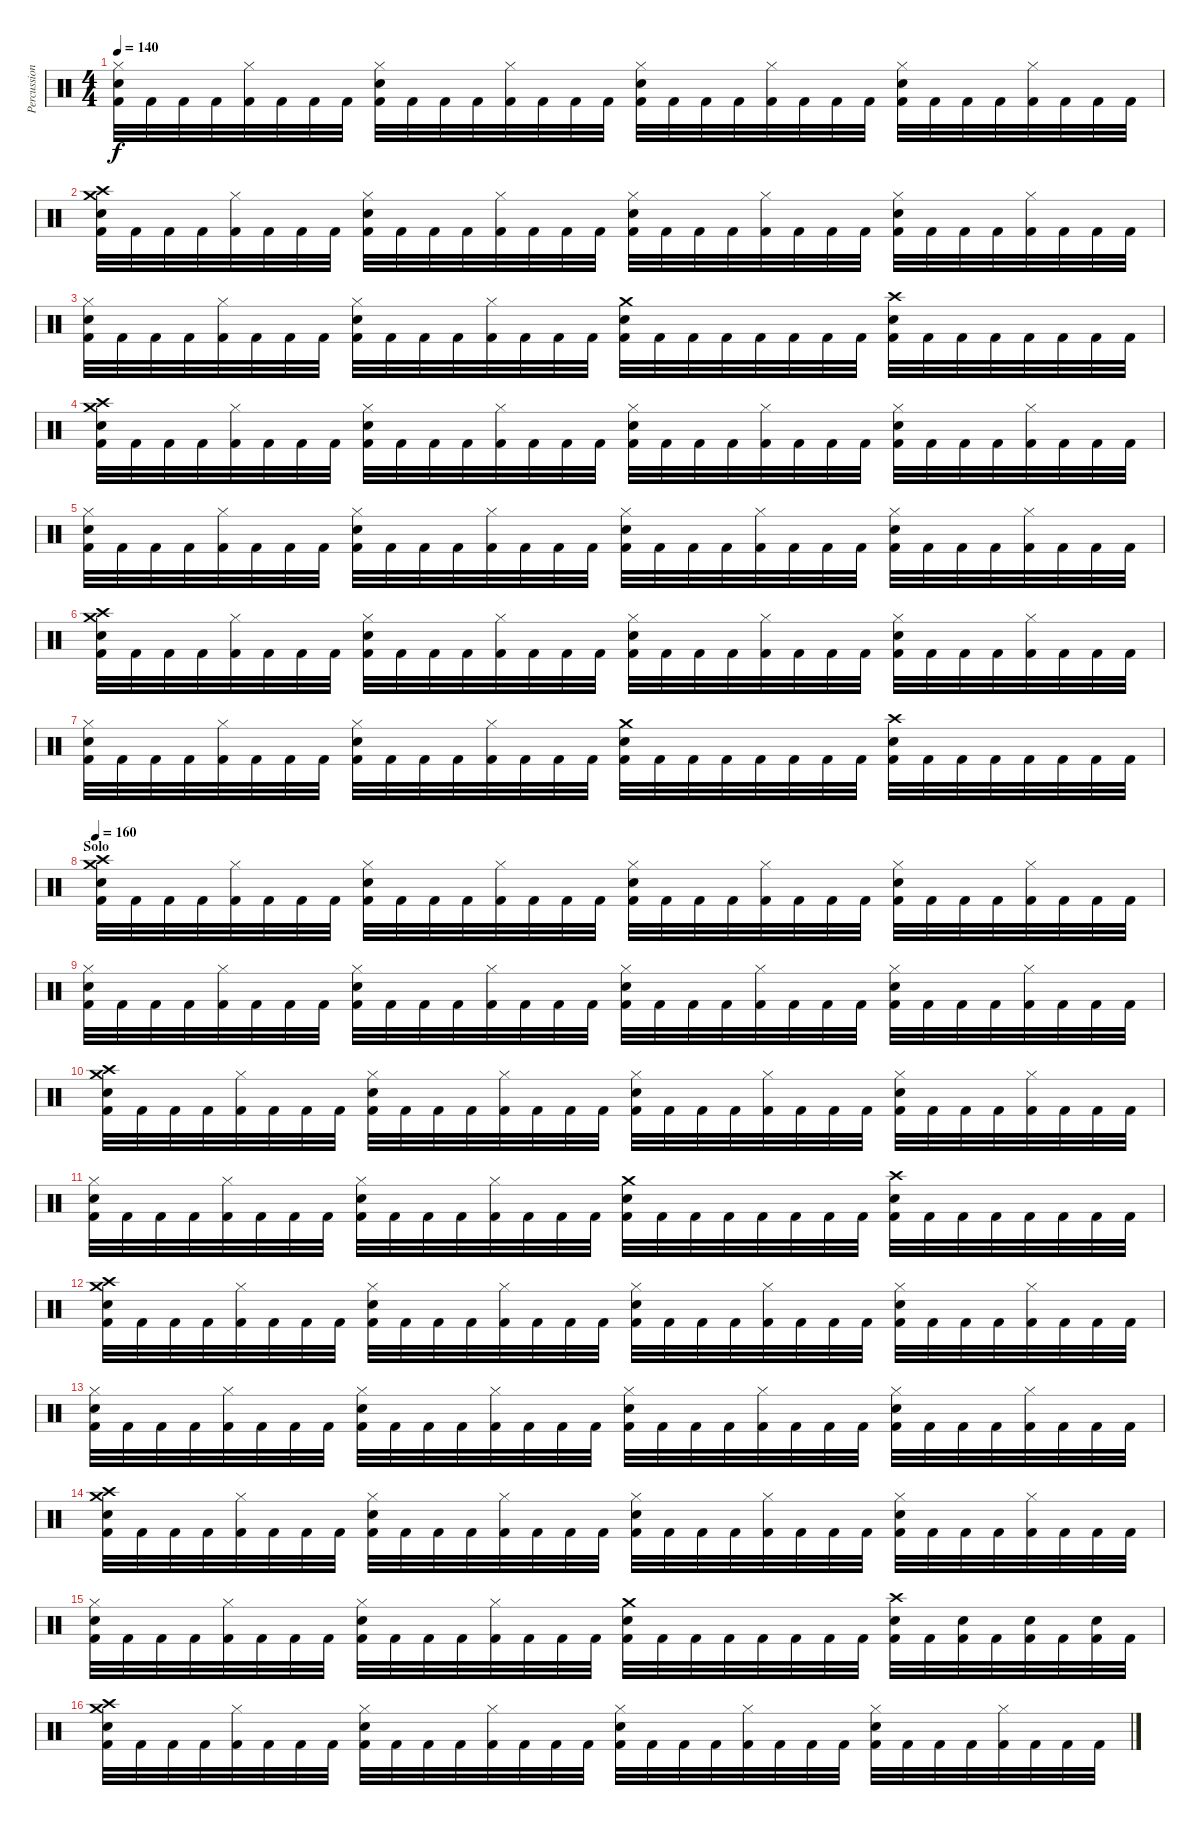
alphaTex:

\track ("Percussion" "Percussion") {instrument percussion}
\staff {score}
\articulation defaults
\ts (4 4)
\tempo 140
\clef neutral
\ks c
("Hi-Hat (closed)" "Electric Snare (hit)" "Kick (hit) 2").32{dy f} "Kick (hit) 2".32 "Kick (hit) 2".32 "Kick (hit) 2".32 ("Hi-Hat (closed)" "Kick (hit) 2").32 "Kick (hit) 2".32 "Kick (hit) 2".32 "Kick (hit) 2".32 ("Hi-Hat (closed)" "Electric Snare (hit)" "Kick (hit) 2").32 "Kick (hit) 2".32 "Kick (hit) 2".32 "Kick (hit) 2".32 ("Hi-Hat (closed)" "Kick (hit) 2").32 "Kick (hit) 2".32 "Kick (hit) 2".32 "Kick (hit) 2".32 ("Hi-Hat (closed)" "Electric Snare (hit)" "Kick (hit) 2").32 "Kick (hit) 2".32 "Kick (hit) 2".32 "Kick (hit) 2".32 ("Hi-Hat (closed)" "Kick (hit) 2").32 "Kick (hit) 2".32 "Kick (hit) 2".32 "Kick (hit) 2".32 ("Hi-Hat (closed)" "Electric Snare (hit)" "Kick (hit) 2").32 "Kick (hit) 2".32 "Kick (hit) 2".32 "Kick (hit) 2".32 ("Hi-Hat (closed)" "Kick (hit) 2").32 "Kick (hit) 2".32 "Kick (hit) 2".32 "Kick (hit) 2".32 |
("Crash medium (hit)" "Crash high (hit)" "Electric Snare (hit)" "Kick (hit) 2").32 "Kick (hit) 2".32 "Kick (hit) 2".32 "Kick (hit) 2".32 ("Hi-Hat (closed)" "Kick (hit) 2").32 "Kick (hit) 2".32 "Kick (hit) 2".32 "Kick (hit) 2".32 ("Hi-Hat (closed)" "Electric Snare (hit)" "Kick (hit) 2").32 "Kick (hit) 2".32 "Kick (hit) 2".32 "Kick (hit) 2".32 ("Hi-Hat (closed)" "Kick (hit) 2").32 "Kick (hit) 2".32 "Kick (hit) 2".32 "Kick (hit) 2".32 ("Hi-Hat (closed)" "Electric Snare (hit)" "Kick (hit) 2").32 "Kick (hit) 2".32 "Kick (hit) 2".32 "Kick (hit) 2".32 ("Hi-Hat (closed)" "Kick (hit) 2").32 "Kick (hit) 2".32 "Kick (hit) 2".32 "Kick (hit) 2".32 ("Hi-Hat (closed)" "Electric Snare (hit)" "Kick (hit) 2").32 "Kick (hit) 2".32 "Kick (hit) 2".32 "Kick (hit) 2".32 ("Hi-Hat (closed)" "Kick (hit) 2").32 "Kick (hit) 2".32 "Kick (hit) 2".32 "Kick (hit) 2".32 |
("Hi-Hat (closed)" "Electric Snare (hit)" "Kick (hit) 2").32 "Kick (hit) 2".32 "Kick (hit) 2".32 "Kick (hit) 2".32 ("Hi-Hat (closed)" "Kick (hit) 2").32 "Kick (hit) 2".32 "Kick (hit) 2".32 "Kick (hit) 2".32 ("Hi-Hat (closed)" "Electric Snare (hit)" "Kick (hit) 2").32 "Kick (hit) 2".32 "Kick (hit) 2".32 "Kick (hit) 2".32 ("Hi-Hat (closed)" "Kick (hit) 2").32 "Kick (hit) 2".32 "Kick (hit) 2".32 "Kick (hit) 2".32 ("Crash medium (hit)" "Electric Snare (hit)" "Kick (hit) 2").32 "Kick (hit) 2".32 "Kick (hit) 2".32 "Kick (hit) 2".32 "Kick (hit) 2".32 "Kick (hit) 2".32 "Kick (hit) 2".32 "Kick (hit) 2".32 ("Crash high (hit)" "Electric Snare (hit)" "Kick (hit) 2").32 "Kick (hit) 2".32 "Kick (hit) 2".32 "Kick (hit) 2".32 "Kick (hit) 2".32 "Kick (hit) 2".32 "Kick (hit) 2".32 "Kick (hit) 2".32 |
("Crash medium (hit)" "Crash high (hit)" "Electric Snare (hit)" "Kick (hit) 2").32 "Kick (hit) 2".32 "Kick (hit) 2".32 "Kick (hit) 2".32 ("Hi-Hat (closed)" "Kick (hit) 2").32 "Kick (hit) 2".32 "Kick (hit) 2".32 "Kick (hit) 2".32 ("Hi-Hat (closed)" "Electric Snare (hit)" "Kick (hit) 2").32 "Kick (hit) 2".32 "Kick (hit) 2".32 "Kick (hit) 2".32 ("Hi-Hat (closed)" "Kick (hit) 2").32 "Kick (hit) 2".32 "Kick (hit) 2".32 "Kick (hit) 2".32 ("Hi-Hat (closed)" "Electric Snare (hit)" "Kick (hit) 2").32 "Kick (hit) 2".32 "Kick (hit) 2".32 "Kick (hit) 2".32 ("Hi-Hat (closed)" "Kick (hit) 2").32 "Kick (hit) 2".32 "Kick (hit) 2".32 "Kick (hit) 2".32 ("Hi-Hat (closed)" "Electric Snare (hit)" "Kick (hit) 2").32 "Kick (hit) 2".32 "Kick (hit) 2".32 "Kick (hit) 2".32 ("Hi-Hat (closed)" "Kick (hit) 2").32 "Kick (hit) 2".32 "Kick (hit) 2".32 "Kick (hit) 2".32 |
("Hi-Hat (closed)" "Electric Snare (hit)" "Kick (hit) 2").32 "Kick (hit) 2".32 "Kick (hit) 2".32 "Kick (hit) 2".32 ("Hi-Hat (closed)" "Kick (hit) 2").32 "Kick (hit) 2".32 "Kick (hit) 2".32 "Kick (hit) 2".32 ("Hi-Hat (closed)" "Electric Snare (hit)" "Kick (hit) 2").32 "Kick (hit) 2".32 "Kick (hit) 2".32 "Kick (hit) 2".32 ("Hi-Hat (closed)" "Kick (hit) 2").32 "Kick (hit) 2".32 "Kick (hit) 2".32 "Kick (hit) 2".32 ("Hi-Hat (closed)" "Electric Snare (hit)" "Kick (hit) 2").32 "Kick (hit) 2".32 "Kick (hit) 2".32 "Kick (hit) 2".32 ("Hi-Hat (closed)" "Kick (hit) 2").32 "Kick (hit) 2".32 "Kick (hit) 2".32 "Kick (hit) 2".32 ("Hi-Hat (closed)" "Electric Snare (hit)" "Kick (hit) 2").32 "Kick (hit) 2".32 "Kick (hit) 2".32 "Kick (hit) 2".32 ("Hi-Hat (closed)" "Kick (hit) 2").32 "Kick (hit) 2".32 "Kick (hit) 2".32 "Kick (hit) 2".32 |
("Crash medium (hit)" "Crash high (hit)" "Electric Snare (hit)" "Kick (hit) 2").32 "Kick (hit) 2".32 "Kick (hit) 2".32 "Kick (hit) 2".32 ("Hi-Hat (closed)" "Kick (hit) 2").32 "Kick (hit) 2".32 "Kick (hit) 2".32 "Kick (hit) 2".32 ("Hi-Hat (closed)" "Electric Snare (hit)" "Kick (hit) 2").32 "Kick (hit) 2".32 "Kick (hit) 2".32 "Kick (hit) 2".32 ("Hi-Hat (closed)" "Kick (hit) 2").32 "Kick (hit) 2".32 "Kick (hit) 2".32 "Kick (hit) 2".32 ("Hi-Hat (closed)" "Electric Snare (hit)" "Kick (hit) 2").32 "Kick (hit) 2".32 "Kick (hit) 2".32 "Kick (hit) 2".32 ("Hi-Hat (closed)" "Kick (hit) 2").32 "Kick (hit) 2".32 "Kick (hit) 2".32 "Kick (hit) 2".32 ("Hi-Hat (closed)" "Electric Snare (hit)" "Kick (hit) 2").32 "Kick (hit) 2".32 "Kick (hit) 2".32 "Kick (hit) 2".32 ("Hi-Hat (closed)" "Kick (hit) 2").32 "Kick (hit) 2".32 "Kick (hit) 2".32 "Kick (hit) 2".32 |
("Hi-Hat (closed)" "Electric Snare (hit)" "Kick (hit) 2").32 "Kick (hit) 2".32 "Kick (hit) 2".32 "Kick (hit) 2".32 ("Hi-Hat (closed)" "Kick (hit) 2").32 "Kick (hit) 2".32 "Kick (hit) 2".32 "Kick (hit) 2".32 ("Hi-Hat (closed)" "Electric Snare (hit)" "Kick (hit) 2").32 "Kick (hit) 2".32 "Kick (hit) 2".32 "Kick (hit) 2".32 ("Hi-Hat (closed)" "Kick (hit) 2").32 "Kick (hit) 2".32 "Kick (hit) 2".32 "Kick (hit) 2".32 ("Crash medium (hit)" "Electric Snare (hit)" "Kick (hit) 2").32 "Kick (hit) 2".32 "Kick (hit) 2".32 "Kick (hit) 2".32 "Kick (hit) 2".32 "Kick (hit) 2".32 "Kick (hit) 2".32 "Kick (hit) 2".32 ("Crash high (hit)" "Electric Snare (hit)" "Kick (hit) 2").32 "Kick (hit) 2".32 "Kick (hit) 2".32 "Kick (hit) 2".32 "Kick (hit) 2".32 "Kick (hit) 2".32 "Kick (hit) 2".32 "Kick (hit) 2".32 |
\section ("" "Solo")
\tempo 160
("Crash medium (hit)" "Crash high (hit)" "Electric Snare (hit)" "Kick (hit) 2").32 "Kick (hit) 2".32 "Kick (hit) 2".32 "Kick (hit) 2".32 ("Hi-Hat (closed)" "Kick (hit) 2").32 "Kick (hit) 2".32 "Kick (hit) 2".32 "Kick (hit) 2".32 ("Hi-Hat (closed)" "Electric Snare (hit)" "Kick (hit) 2").32 "Kick (hit) 2".32 "Kick (hit) 2".32 "Kick (hit) 2".32 ("Hi-Hat (closed)" "Kick (hit) 2").32 "Kick (hit) 2".32 "Kick (hit) 2".32 "Kick (hit) 2".32 ("Hi-Hat (closed)" "Electric Snare (hit)" "Kick (hit) 2").32 "Kick (hit) 2".32 "Kick (hit) 2".32 "Kick (hit) 2".32 ("Hi-Hat (closed)" "Kick (hit) 2").32 "Kick (hit) 2".32 "Kick (hit) 2".32 "Kick (hit) 2".32 ("Hi-Hat (closed)" "Electric Snare (hit)" "Kick (hit) 2").32 "Kick (hit) 2".32 "Kick (hit) 2".32 "Kick (hit) 2".32 ("Hi-Hat (closed)" "Kick (hit) 2").32 "Kick (hit) 2".32 "Kick (hit) 2".32 "Kick (hit) 2".32 |
("Hi-Hat (closed)" "Electric Snare (hit)" "Kick (hit) 2").32 "Kick (hit) 2".32 "Kick (hit) 2".32 "Kick (hit) 2".32 ("Hi-Hat (closed)" "Kick (hit) 2").32 "Kick (hit) 2".32 "Kick (hit) 2".32 "Kick (hit) 2".32 ("Hi-Hat (closed)" "Electric Snare (hit)" "Kick (hit) 2").32 "Kick (hit) 2".32 "Kick (hit) 2".32 "Kick (hit) 2".32 ("Hi-Hat (closed)" "Kick (hit) 2").32 "Kick (hit) 2".32 "Kick (hit) 2".32 "Kick (hit) 2".32 ("Hi-Hat (closed)" "Electric Snare (hit)" "Kick (hit) 2").32 "Kick (hit) 2".32 "Kick (hit) 2".32 "Kick (hit) 2".32 ("Hi-Hat (closed)" "Kick (hit) 2").32 "Kick (hit) 2".32 "Kick (hit) 2".32 "Kick (hit) 2".32 ("Hi-Hat (closed)" "Electric Snare (hit)" "Kick (hit) 2").32 "Kick (hit) 2".32 "Kick (hit) 2".32 "Kick (hit) 2".32 ("Hi-Hat (closed)" "Kick (hit) 2").32 "Kick (hit) 2".32 "Kick (hit) 2".32 "Kick (hit) 2".32 |
("Crash medium (hit)" "Crash high (hit)" "Electric Snare (hit)" "Kick (hit) 2").32 "Kick (hit) 2".32 "Kick (hit) 2".32 "Kick (hit) 2".32 ("Hi-Hat (closed)" "Kick (hit) 2").32 "Kick (hit) 2".32 "Kick (hit) 2".32 "Kick (hit) 2".32 ("Hi-Hat (closed)" "Electric Snare (hit)" "Kick (hit) 2").32 "Kick (hit) 2".32 "Kick (hit) 2".32 "Kick (hit) 2".32 ("Hi-Hat (closed)" "Kick (hit) 2").32 "Kick (hit) 2".32 "Kick (hit) 2".32 "Kick (hit) 2".32 ("Hi-Hat (closed)" "Electric Snare (hit)" "Kick (hit) 2").32 "Kick (hit) 2".32 "Kick (hit) 2".32 "Kick (hit) 2".32 ("Hi-Hat (closed)" "Kick (hit) 2").32 "Kick (hit) 2".32 "Kick (hit) 2".32 "Kick (hit) 2".32 ("Hi-Hat (closed)" "Electric Snare (hit)" "Kick (hit) 2").32 "Kick (hit) 2".32 "Kick (hit) 2".32 "Kick (hit) 2".32 ("Hi-Hat (closed)" "Kick (hit) 2").32 "Kick (hit) 2".32 "Kick (hit) 2".32 "Kick (hit) 2".32 |
("Hi-Hat (closed)" "Electric Snare (hit)" "Kick (hit) 2").32 "Kick (hit) 2".32 "Kick (hit) 2".32 "Kick (hit) 2".32 ("Hi-Hat (closed)" "Kick (hit) 2").32 "Kick (hit) 2".32 "Kick (hit) 2".32 "Kick (hit) 2".32 ("Hi-Hat (closed)" "Electric Snare (hit)" "Kick (hit) 2").32 "Kick (hit) 2".32 "Kick (hit) 2".32 "Kick (hit) 2".32 ("Hi-Hat (closed)" "Kick (hit) 2").32 "Kick (hit) 2".32 "Kick (hit) 2".32 "Kick (hit) 2".32 ("Crash medium (hit)" "Electric Snare (hit)" "Kick (hit) 2").32 "Kick (hit) 2".32 "Kick (hit) 2".32 "Kick (hit) 2".32 "Kick (hit) 2".32 "Kick (hit) 2".32 "Kick (hit) 2".32 "Kick (hit) 2".32 ("Crash high (hit)" "Electric Snare (hit)" "Kick (hit) 2").32 "Kick (hit) 2".32 "Kick (hit) 2".32 "Kick (hit) 2".32 "Kick (hit) 2".32 "Kick (hit) 2".32 "Kick (hit) 2".32 "Kick (hit) 2".32 |
("Crash medium (hit)" "Crash high (hit)" "Electric Snare (hit)" "Kick (hit) 2").32 "Kick (hit) 2".32 "Kick (hit) 2".32 "Kick (hit) 2".32 ("Hi-Hat (closed)" "Kick (hit) 2").32 "Kick (hit) 2".32 "Kick (hit) 2".32 "Kick (hit) 2".32 ("Hi-Hat (closed)" "Electric Snare (hit)" "Kick (hit) 2").32 "Kick (hit) 2".32 "Kick (hit) 2".32 "Kick (hit) 2".32 ("Hi-Hat (closed)" "Kick (hit) 2").32 "Kick (hit) 2".32 "Kick (hit) 2".32 "Kick (hit) 2".32 ("Hi-Hat (closed)" "Electric Snare (hit)" "Kick (hit) 2").32 "Kick (hit) 2".32 "Kick (hit) 2".32 "Kick (hit) 2".32 ("Hi-Hat (closed)" "Kick (hit) 2").32 "Kick (hit) 2".32 "Kick (hit) 2".32 "Kick (hit) 2".32 ("Hi-Hat (closed)" "Electric Snare (hit)" "Kick (hit) 2").32 "Kick (hit) 2".32 "Kick (hit) 2".32 "Kick (hit) 2".32 ("Hi-Hat (closed)" "Kick (hit) 2").32 "Kick (hit) 2".32 "Kick (hit) 2".32 "Kick (hit) 2".32 |
("Hi-Hat (closed)" "Electric Snare (hit)" "Kick (hit) 2").32 "Kick (hit) 2".32 "Kick (hit) 2".32 "Kick (hit) 2".32 ("Hi-Hat (closed)" "Kick (hit) 2").32 "Kick (hit) 2".32 "Kick (hit) 2".32 "Kick (hit) 2".32 ("Hi-Hat (closed)" "Electric Snare (hit)" "Kick (hit) 2").32 "Kick (hit) 2".32 "Kick (hit) 2".32 "Kick (hit) 2".32 ("Hi-Hat (closed)" "Kick (hit) 2").32 "Kick (hit) 2".32 "Kick (hit) 2".32 "Kick (hit) 2".32 ("Hi-Hat (closed)" "Electric Snare (hit)" "Kick (hit) 2").32 "Kick (hit) 2".32 "Kick (hit) 2".32 "Kick (hit) 2".32 ("Hi-Hat (closed)" "Kick (hit) 2").32 "Kick (hit) 2".32 "Kick (hit) 2".32 "Kick (hit) 2".32 ("Hi-Hat (closed)" "Electric Snare (hit)" "Kick (hit) 2").32 "Kick (hit) 2".32 "Kick (hit) 2".32 "Kick (hit) 2".32 ("Hi-Hat (closed)" "Kick (hit) 2").32 "Kick (hit) 2".32 "Kick (hit) 2".32 "Kick (hit) 2".32 |
("Crash medium (hit)" "Crash high (hit)" "Electric Snare (hit)" "Kick (hit) 2").32 "Kick (hit) 2".32 "Kick (hit) 2".32 "Kick (hit) 2".32 ("Hi-Hat (closed)" "Kick (hit) 2").32 "Kick (hit) 2".32 "Kick (hit) 2".32 "Kick (hit) 2".32 ("Hi-Hat (closed)" "Electric Snare (hit)" "Kick (hit) 2").32 "Kick (hit) 2".32 "Kick (hit) 2".32 "Kick (hit) 2".32 ("Hi-Hat (closed)" "Kick (hit) 2").32 "Kick (hit) 2".32 "Kick (hit) 2".32 "Kick (hit) 2".32 ("Hi-Hat (closed)" "Electric Snare (hit)" "Kick (hit) 2").32 "Kick (hit) 2".32 "Kick (hit) 2".32 "Kick (hit) 2".32 ("Hi-Hat (closed)" "Kick (hit) 2").32 "Kick (hit) 2".32 "Kick (hit) 2".32 "Kick (hit) 2".32 ("Hi-Hat (closed)" "Electric Snare (hit)" "Kick (hit) 2").32 "Kick (hit) 2".32 "Kick (hit) 2".32 "Kick (hit) 2".32 ("Hi-Hat (closed)" "Kick (hit) 2").32 "Kick (hit) 2".32 "Kick (hit) 2".32 "Kick (hit) 2".32 |
("Hi-Hat (closed)" "Electric Snare (hit)" "Kick (hit) 2").32 "Kick (hit) 2".32 "Kick (hit) 2".32 "Kick (hit) 2".32 ("Hi-Hat (closed)" "Kick (hit) 2").32 "Kick (hit) 2".32 "Kick (hit) 2".32 "Kick (hit) 2".32 ("Hi-Hat (closed)" "Electric Snare (hit)" "Kick (hit) 2").32 "Kick (hit) 2".32 "Kick (hit) 2".32 "Kick (hit) 2".32 ("Hi-Hat (closed)" "Kick (hit) 2").32 "Kick (hit) 2".32 "Kick (hit) 2".32 "Kick (hit) 2".32 ("Crash medium (hit)" "Electric Snare (hit)" "Kick (hit) 2").32 "Kick (hit) 2".32 "Kick (hit) 2".32 "Kick (hit) 2".32 "Kick (hit) 2".32 "Kick (hit) 2".32 "Kick (hit) 2".32 "Kick (hit) 2".32 ("Crash high (hit)" "Electric Snare (hit)" "Kick (hit) 2").32 "Kick (hit) 2".32 ("Electric Snare (hit)" "Kick (hit) 2").32 "Kick (hit) 2".32 ("Electric Snare (hit)" "Kick (hit) 2").32 "Kick (hit) 2".32 ("Electric Snare (hit)" "Kick (hit) 2").32 "Kick (hit) 2".32 |
("Crash medium (hit)" "Crash high (hit)" "Electric Snare (hit)" "Kick (hit) 2").32 "Kick (hit) 2".32 "Kick (hit) 2".32 "Kick (hit) 2".32 ("Hi-Hat (closed)" "Kick (hit) 2").32 "Kick (hit) 2".32 "Kick (hit) 2".32 "Kick (hit) 2".32 ("Hi-Hat (closed)" "Electric Snare (hit)" "Kick (hit) 2").32 "Kick (hit) 2".32 "Kick (hit) 2".32 "Kick (hit) 2".32 ("Hi-Hat (closed)" "Kick (hit) 2").32 "Kick (hit) 2".32 "Kick (hit) 2".32 "Kick (hit) 2".32 ("Hi-Hat (closed)" "Electric Snare (hit)" "Kick (hit) 2").32 "Kick (hit) 2".32 "Kick (hit) 2".32 "Kick (hit) 2".32 ("Hi-Hat (closed)" "Kick (hit) 2").32 "Kick (hit) 2".32 "Kick (hit) 2".32 "Kick (hit) 2".32 ("Hi-Hat (closed)" "Electric Snare (hit)" "Kick (hit) 2").32 "Kick (hit) 2".32 "Kick (hit) 2".32 "Kick (hit) 2".32 ("Hi-Hat (closed)" "Kick (hit) 2").32 "Kick (hit) 2".32 "Kick (hit) 2".32 "Kick (hit) 2".32
